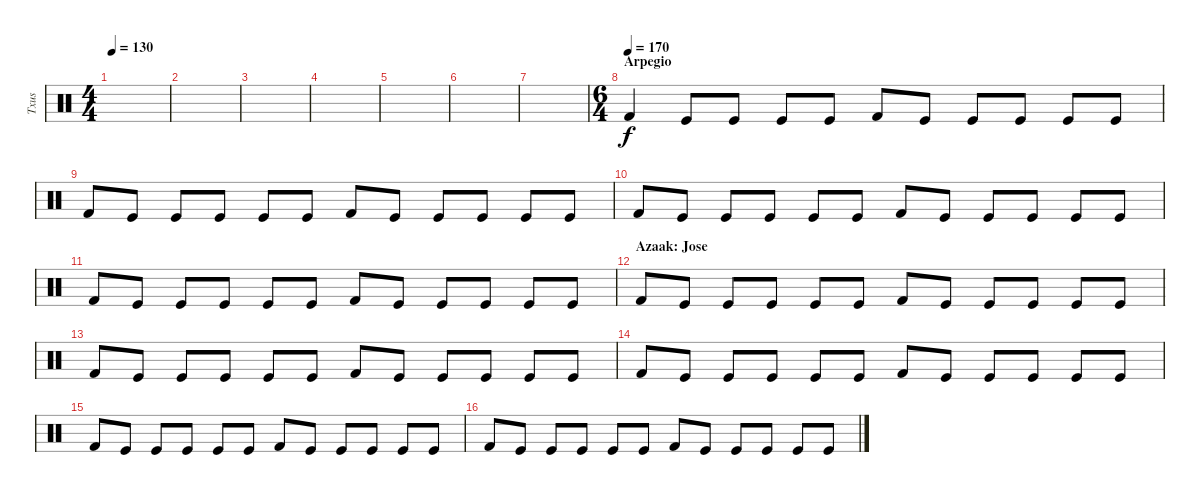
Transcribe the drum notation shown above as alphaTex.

\track ("Txus" "Txus") {instrument percussion}
\staff {score}
\articulation defaults
\ts (4 4)
\tempo 130
\clef neutral
\ks c
|
|
|
|
|
|
|
\ts (6 4)
\section ("" "Arpegio")
\tempo (170)
"Kick (hit) 2".4{volume 13} "Kick (hit)".8 "Kick (hit)".8 "Kick (hit)".8 "Kick (hit)".8 "Kick (hit) 2".8 "Kick (hit)".8 "Kick (hit)".8 "Kick (hit)".8 "Kick (hit)".8 "Kick (hit)".8 |
"Kick (hit) 2".8 "Kick (hit)".8 "Kick (hit)".8 "Kick (hit)".8 "Kick (hit)".8 "Kick (hit)".8 "Kick (hit) 2".8 "Kick (hit)".8 "Kick (hit)".8 "Kick (hit)".8 "Kick (hit)".8 "Kick (hit)".8 |
"Kick (hit) 2".8 "Kick (hit)".8 "Kick (hit)".8 "Kick (hit)".8 "Kick (hit)".8 "Kick (hit)".8 "Kick (hit) 2".8 "Kick (hit)".8 "Kick (hit)".8 "Kick (hit)".8 "Kick (hit)".8 "Kick (hit)".8 |
"Kick (hit) 2".8 "Kick (hit)".8 "Kick (hit)".8 "Kick (hit)".8 "Kick (hit)".8 "Kick (hit)".8 "Kick (hit) 2".8 "Kick (hit)".8 "Kick (hit)".8 "Kick (hit)".8 "Kick (hit)".8 "Kick (hit)".8 |
\section ("" "Azaak: Jose")
"Kick (hit) 2".8 "Kick (hit)".8 "Kick (hit)".8 "Kick (hit)".8 "Kick (hit)".8 "Kick (hit)".8 "Kick (hit) 2".8 "Kick (hit)".8 "Kick (hit)".8 "Kick (hit)".8 "Kick (hit)".8 "Kick (hit)".8 |
"Kick (hit) 2".8 "Kick (hit)".8 "Kick (hit)".8 "Kick (hit)".8 "Kick (hit)".8 "Kick (hit)".8 "Kick (hit) 2".8 "Kick (hit)".8 "Kick (hit)".8 "Kick (hit)".8 "Kick (hit)".8 "Kick (hit)".8 |
"Kick (hit) 2".8 "Kick (hit)".8 "Kick (hit)".8 "Kick (hit)".8 "Kick (hit)".8 "Kick (hit)".8 "Kick (hit) 2".8 "Kick (hit)".8 "Kick (hit)".8 "Kick (hit)".8 "Kick (hit)".8 "Kick (hit)".8 |
"Kick (hit) 2".8 "Kick (hit)".8 "Kick (hit)".8 "Kick (hit)".8 "Kick (hit)".8 "Kick (hit)".8 "Kick (hit) 2".8 "Kick (hit)".8 "Kick (hit)".8 "Kick (hit)".8 "Kick (hit)".8 "Kick (hit)".8 |
"Kick (hit) 2".8 "Kick (hit)".8 "Kick (hit)".8 "Kick (hit)".8 "Kick (hit)".8 "Kick (hit)".8 "Kick (hit) 2".8 "Kick (hit)".8 "Kick (hit)".8 "Kick (hit)".8 "Kick (hit)".8 "Kick (hit)".8
